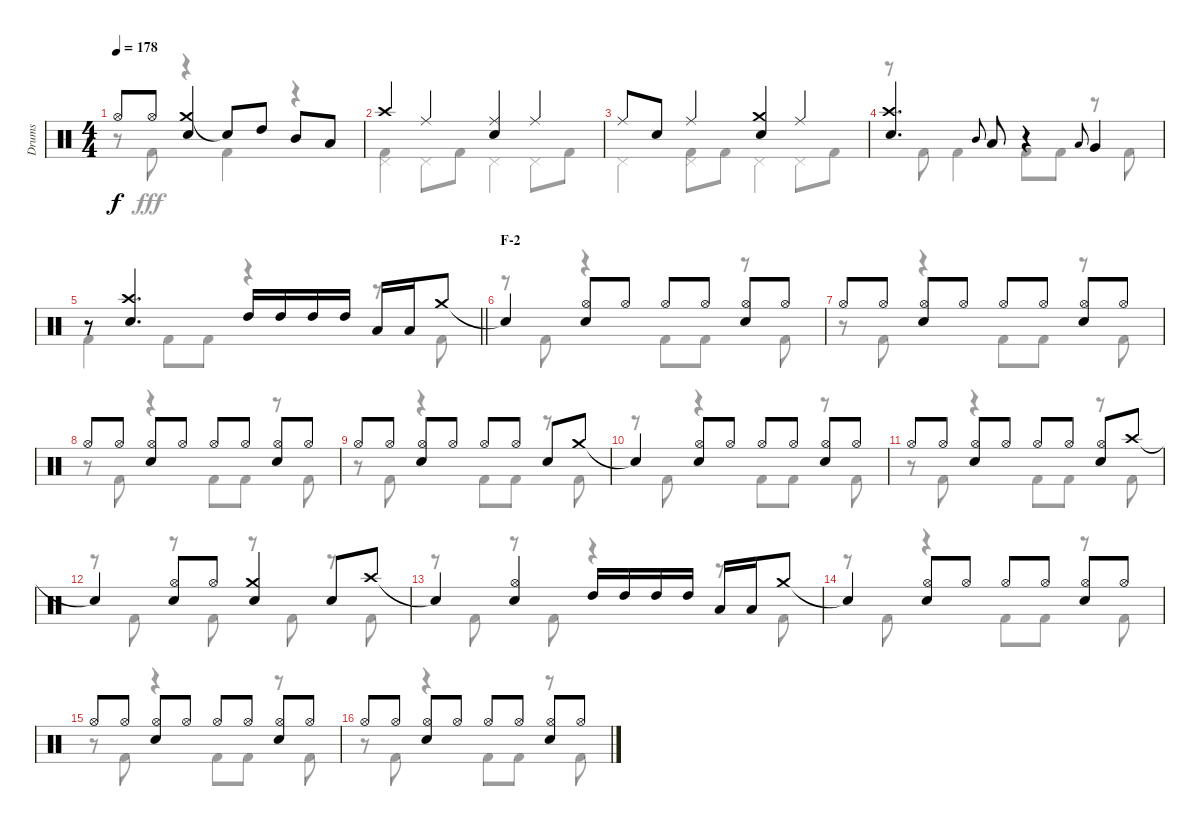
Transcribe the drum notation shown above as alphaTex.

\track ("Drums" "Drums") {instrument percussion}
\staff {score}
\articulation defaults
\voice
\ts (4 4)
\tempo 178
\clef neutral
\ks c "Hi-Hat (open)".8{dy f} "Hi-Hat (open)".8
("Crash medium (hit)" "Snare (hit) 2").4 "Snare (hit)"{t}.8 "High Tom (hit)".8 "Mid Tom (hit)".8 "Low Tom (hit)".8 |
"Crash high (hit)".4 "Ride (middle)".4 ("Ride (middle)" "Snare (hit) 2").4 "Ride (middle)".4 |
"Ride (middle)".8 "Snare (hit) 2".8 "Ride (middle)".4 ("Crash medium (hit)" "Snare (hit) 2").4 "Ride (middle)".4 |
("Crash high (hit)" "Snare (hit) 2").4{d} "Mid Tom (hit)".8{gr onbeat} "Low Tom (hit)".8 r.4 "Low Tom (hit)".8{gr onbeat} "Very Low Tom (hit)".4 |
\barLineRight lightlight
r.8 ("Crash high (hit)" "Snare (hit) 2").4{d} "High Tom (hit)".16 "High Tom (hit)".16 "High Tom (hit)".16 "High Tom (hit)".16 "Low Tom (hit)".16 "Low Tom (hit)".16 "Crash medium (hit)".8 |
\section ("" "F-2")
"Snare (hit)"{t}.4 ("Hi-Hat (open)" "Snare (hit) 2").8 "Hi-Hat (open)".8 "Hi-Hat (open)".8 "Hi-Hat (open)".8 ("Hi-Hat (open)" "Snare (hit) 2").8 "Hi-Hat (open)".8 |
"Hi-Hat (open)".8 "Hi-Hat (open)".8 ("Hi-Hat (open)" "Snare (hit) 2").8 "Hi-Hat (open)".8 "Hi-Hat (open)".8 "Hi-Hat (open)".8 ("Hi-Hat (open)" "Snare (hit) 2").8 "Hi-Hat (open)".8 |
"Hi-Hat (open)".8 "Hi-Hat (open)".8 ("Hi-Hat (open)" "Snare (hit) 2").8 "Hi-Hat (open)".8 "Hi-Hat (open)".8 "Hi-Hat (open)".8 ("Hi-Hat (open)" "Snare (hit) 2").8 "Hi-Hat (open)".8 |
"Hi-Hat (open)".8 "Hi-Hat (open)".8 ("Hi-Hat (open)" "Snare (hit) 2").8 "Hi-Hat (open)".8 "Hi-Hat (open)".8 "Hi-Hat (open)".8 "Snare (hit) 2".8 "Crash medium (hit)".8 |
"Snare (hit)"{t}.4 ("Hi-Hat (open)" "Snare (hit) 2").8 "Hi-Hat (open)".8 "Hi-Hat (open)".8 "Hi-Hat (open)".8 ("Hi-Hat (open)" "Snare (hit) 2").8 "Hi-Hat (open)".8 |
"Hi-Hat (open)".8 "Hi-Hat (open)".8 ("Hi-Hat (open)" "Snare (hit) 2").8 "Hi-Hat (open)".8 "Hi-Hat (open)".8 "Hi-Hat (open)".8 ("Hi-Hat (open)" "Snare (hit) 2").8 "Crash high (hit)".8 |
"Snare (hit)"{t}.4 ("Hi-Hat (open)" "Snare (hit) 2").8 "Hi-Hat (open)".8 ("Crash medium (hit)" "Snare (hit) 2").4 "Snare (hit) 2".8 "Crash high (hit)".8 |
"Snare (hit)"{t}.4 ("Hi-Hat (open)" "Snare (hit) 2").4 "High Tom (hit)".16 "High Tom (hit)".16 "High Tom (hit)".16 "High Tom (hit)".16 "Low Tom (hit)".16 "Low Tom (hit)".16 "Crash medium (hit)".8 |
"Snare (hit)"{t}.4 ("Hi-Hat (open)" "Snare (hit) 2").8 "Hi-Hat (open)".8 "Hi-Hat (open)".8 "Hi-Hat (open)".8 ("Hi-Hat (open)" "Snare (hit) 2").8 "Hi-Hat (open)".8 |
"Hi-Hat (open)".8 "Hi-Hat (open)".8 ("Hi-Hat (open)" "Snare (hit) 2").8 "Hi-Hat (open)".8 "Hi-Hat (open)".8 "Hi-Hat (open)".8 ("Hi-Hat (open)" "Snare (hit) 2").8 "Hi-Hat (open)".8 |
"Hi-Hat (open)".8 "Hi-Hat (open)".8 ("Hi-Hat (open)" "Snare (hit) 2").8 "Hi-Hat (open)".8 "Hi-Hat (open)".8 "Hi-Hat (open)".8 ("Hi-Hat (open)" "Snare (hit) 2").8 "Hi-Hat (open)".8
\voice
\clef neutral
\ottava regular
\simile none
\ks c
r.8{dy fff} "Kick (hit) 2".8 r.4 "Kick (hit) 2".4 r.4 |
("Pedal Hi-Hat (hit)" "Kick (hit) 2").4 "Pedal Hi-Hat (hit)".8 "Kick (hit) 2".8 "Pedal Hi-Hat (hit)".4 "Pedal Hi-Hat (hit)".8 "Kick (hit) 2".8 |
"Pedal Hi-Hat (hit)".4 ("Pedal Hi-Hat (hit)" "Kick (hit) 2").8 "Kick (hit) 2".8 "Pedal Hi-Hat (hit)".4 "Pedal Hi-Hat (hit)".8 "Kick (hit) 2".8 |
r.8 "Kick (hit) 2".8 "Kick (hit) 2".4 "Kick (hit) 2".8 "Kick (hit) 2".8 r.8 "Kick (hit) 2".8 |
\barLineRight lightlight "Kick (hit) 2".4 "Kick (hit) 2".8 "Kick (hit) 2".8
r.4 r.8 "Kick (hit) 2".8 |
r.8 "Kick (hit) 2".8 r.4 "Kick (hit) 2".8 "Kick (hit) 2".8 r.8 "Kick (hit) 2".8 |
r.8 "Kick (hit) 2".8 r.4 "Kick (hit) 2".8 "Kick (hit) 2".8 r.8 "Kick (hit) 2".8 |
r.8 "Kick (hit) 2".8 r.4 "Kick (hit) 2".8 "Kick (hit) 2".8 r.8 "Kick (hit) 2".8 |
r.8 "Kick (hit) 2".8 r.4 "Kick (hit) 2".8 "Kick (hit) 2".8 r.8 "Kick (hit) 2".8 |
r.8 "Kick (hit) 2".8 r.4 "Kick (hit) 2".8 "Kick (hit) 2".8 r.8 "Kick (hit) 2".8 |
r.8 "Kick (hit) 2".8 r.4 "Kick (hit) 2".8 "Kick (hit) 2".8 r.8 "Kick (hit) 2".8 |
r.8 "Kick (hit) 2".8 r.8 "Kick (hit) 2".8 r.8 "Kick (hit) 2".8 r.8 "Kick (hit) 2".8 |
r.8 "Kick (hit) 2".8 r.8 "Kick (hit) 2".8 r.4 r.8 "Kick (hit) 2".8 |
r.8 "Kick (hit) 2".8 r.4 "Kick (hit) 2".8 "Kick (hit) 2".8 r.8 "Kick (hit) 2".8 |
r.8 "Kick (hit) 2".8 r.4 "Kick (hit) 2".8 "Kick (hit) 2".8 r.8 "Kick (hit) 2".8 |
r.8 "Kick (hit) 2".8 r.4 "Kick (hit) 2".8 "Kick (hit) 2".8 r.8 "Kick (hit) 2".8
